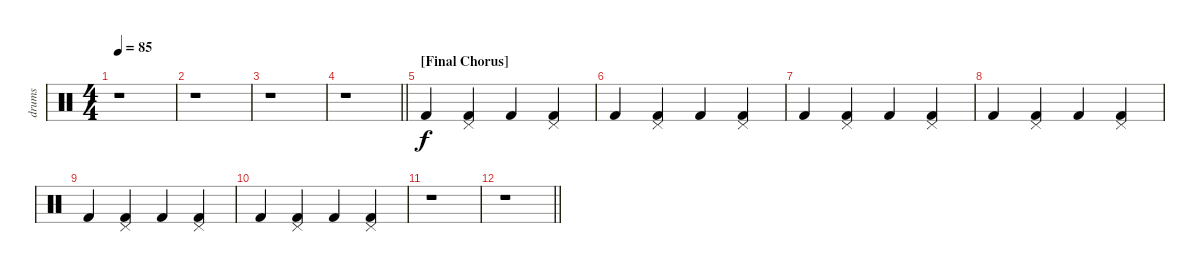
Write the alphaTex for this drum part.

\track ("drums" "drums") {instrument percussion}
\staff {score}
\articulation defaults
\ts (4 4)
\tempo 85
\clef neutral
\ks c
r.1{dy f} |
r.1 |
r.1 |
\barLineRight lightlight
r.1 |
\section ("" "[Final Chorus]")
"Kick (hit) 2".4 ("Pedal Hi-Hat (hit)" "Kick (hit) 2").4 "Kick (hit) 2".4 ("Pedal Hi-Hat (hit)" "Kick (hit) 2").4 |
"Kick (hit) 2".4 ("Pedal Hi-Hat (hit)" "Kick (hit) 2").4 "Kick (hit) 2".4 ("Pedal Hi-Hat (hit)" "Kick (hit) 2").4 |
"Kick (hit) 2".4 ("Pedal Hi-Hat (hit)" "Kick (hit) 2").4 "Kick (hit) 2".4 ("Pedal Hi-Hat (hit)" "Kick (hit) 2").4 |
"Kick (hit) 2".4 ("Pedal Hi-Hat (hit)" "Kick (hit) 2").4 "Kick (hit) 2".4 ("Pedal Hi-Hat (hit)" "Kick (hit) 2").4 |
"Kick (hit) 2".4 ("Pedal Hi-Hat (hit)" "Kick (hit) 2").4 "Kick (hit) 2".4 ("Pedal Hi-Hat (hit)" "Kick (hit) 2").4 |
"Kick (hit) 2".4 ("Pedal Hi-Hat (hit)" "Kick (hit) 2").4 "Kick (hit) 2".4 ("Pedal Hi-Hat (hit)" "Kick (hit) 2").4 |
r.1 |
\barLineRight lightlight
r.1
